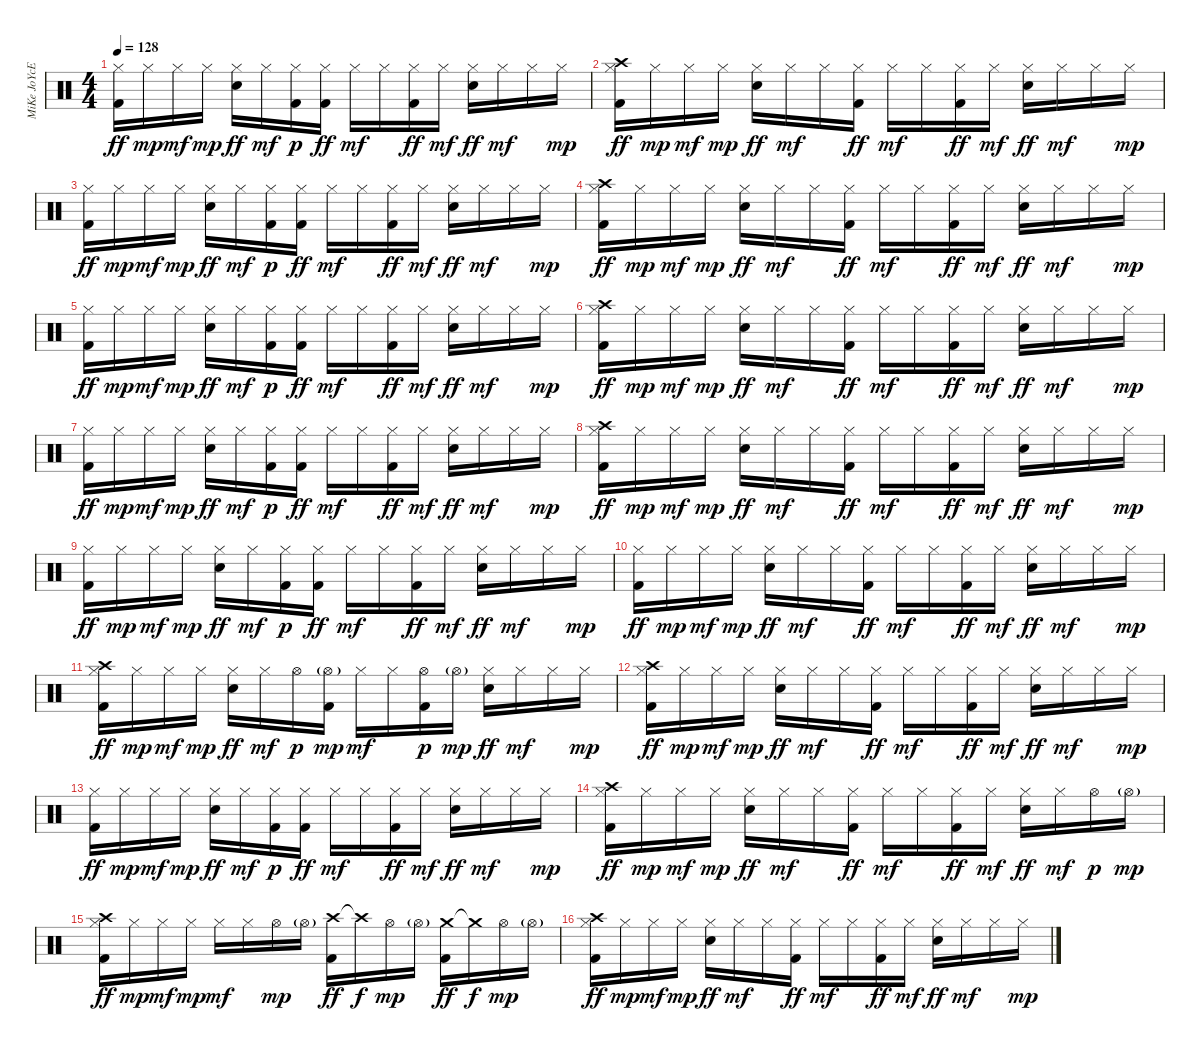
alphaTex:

\track ("MiKe JoYcE" "MiKe JoYcE") {instrument percussion}
\staff {score}
\articulation defaults
\ts (4 4)
\tempo 128
\clef neutral
\ks c
("Hi-Hat (closed)" "Kick (hit) 2").16{dy ff} "Hi-Hat (closed)".16{dy mp} "Hi-Hat (closed)".16{dy mf} "Hi-Hat (closed)".16{dy mp} ("Hi-Hat (closed)" "Electric Snare (hit)").16{dy ff} "Hi-Hat (closed)".16{dy mf} ("Hi-Hat (closed)" "Kick (hit) 2").16{dy p} ("Hi-Hat (closed)" "Kick (hit) 2").16{dy ff} "Hi-Hat (closed)".16{dy mf} "Hi-Hat (closed)".16 ("Hi-Hat (closed)" "Kick (hit) 2").16{dy ff} "Hi-Hat (closed)".16{dy mf} ("Hi-Hat (closed)" "Electric Snare (hit)").16{dy ff} "Hi-Hat (closed)".16{dy mf} "Hi-Hat (closed)".16 "Hi-Hat (closed)".16{dy mp} |
("Hi-Hat (closed)" "Crash high (hit)" "Kick (hit) 2").16{dy ff} "Hi-Hat (closed)".16{dy mp} "Hi-Hat (closed)".16{dy mf} "Hi-Hat (closed)".16{dy mp} ("Hi-Hat (closed)" "Electric Snare (hit)").16{dy ff} "Hi-Hat (closed)".16{dy mf} "Hi-Hat (closed)".16 ("Hi-Hat (closed)" "Kick (hit) 2").16{dy ff} "Hi-Hat (closed)".16{dy mf} "Hi-Hat (closed)".16 ("Hi-Hat (closed)" "Kick (hit) 2").16{dy ff} "Hi-Hat (closed)".16{dy mf} ("Hi-Hat (closed)" "Electric Snare (hit)").16{dy ff} "Hi-Hat (closed)".16{dy mf} "Hi-Hat (closed)".16 "Hi-Hat (closed)".16{dy mp} |
("Hi-Hat (closed)" "Kick (hit) 2").16{dy ff} "Hi-Hat (closed)".16{dy mp} "Hi-Hat (closed)".16{dy mf} "Hi-Hat (closed)".16{dy mp} ("Hi-Hat (closed)" "Electric Snare (hit)").16{dy ff} "Hi-Hat (closed)".16{dy mf} ("Hi-Hat (closed)" "Kick (hit) 2").16{dy p} ("Hi-Hat (closed)" "Kick (hit) 2").16{dy ff} "Hi-Hat (closed)".16{dy mf} "Hi-Hat (closed)".16 ("Hi-Hat (closed)" "Kick (hit) 2").16{dy ff} "Hi-Hat (closed)".16{dy mf} ("Hi-Hat (closed)" "Electric Snare (hit)").16{dy ff} "Hi-Hat (closed)".16{dy mf} "Hi-Hat (closed)".16 "Hi-Hat (closed)".16{dy mp} |
("Hi-Hat (closed)" "Crash high (hit)" "Kick (hit) 2").16{dy ff} "Hi-Hat (closed)".16{dy mp} "Hi-Hat (closed)".16{dy mf} "Hi-Hat (closed)".16{dy mp} ("Hi-Hat (closed)" "Electric Snare (hit)").16{dy ff} "Hi-Hat (closed)".16{dy mf} "Hi-Hat (closed)".16 ("Hi-Hat (closed)" "Kick (hit) 2").16{dy ff} "Hi-Hat (closed)".16{dy mf} "Hi-Hat (closed)".16 ("Hi-Hat (closed)" "Kick (hit) 2").16{dy ff} "Hi-Hat (closed)".16{dy mf} ("Hi-Hat (closed)" "Electric Snare (hit)").16{dy ff} "Hi-Hat (closed)".16{dy mf} "Hi-Hat (closed)".16 "Hi-Hat (closed)".16{dy mp} |
("Hi-Hat (closed)" "Kick (hit) 2").16{dy ff} "Hi-Hat (closed)".16{dy mp} "Hi-Hat (closed)".16{dy mf} "Hi-Hat (closed)".16{dy mp} ("Hi-Hat (closed)" "Electric Snare (hit)").16{dy ff} "Hi-Hat (closed)".16{dy mf} ("Hi-Hat (closed)" "Kick (hit) 2").16{dy p} ("Hi-Hat (closed)" "Kick (hit) 2").16{dy ff} "Hi-Hat (closed)".16{dy mf} "Hi-Hat (closed)".16 ("Hi-Hat (closed)" "Kick (hit) 2").16{dy ff} "Hi-Hat (closed)".16{dy mf} ("Hi-Hat (closed)" "Electric Snare (hit)").16{dy ff} "Hi-Hat (closed)".16{dy mf} "Hi-Hat (closed)".16 "Hi-Hat (closed)".16{dy mp} |
("Hi-Hat (closed)" "Crash high (hit)" "Kick (hit) 2").16{dy ff} "Hi-Hat (closed)".16{dy mp} "Hi-Hat (closed)".16{dy mf} "Hi-Hat (closed)".16{dy mp} ("Hi-Hat (closed)" "Electric Snare (hit)").16{dy ff} "Hi-Hat (closed)".16{dy mf} "Hi-Hat (closed)".16 ("Hi-Hat (closed)" "Kick (hit) 2").16{dy ff} "Hi-Hat (closed)".16{dy mf} "Hi-Hat (closed)".16 ("Hi-Hat (closed)" "Kick (hit) 2").16{dy ff} "Hi-Hat (closed)".16{dy mf} ("Hi-Hat (closed)" "Electric Snare (hit)").16{dy ff} "Hi-Hat (closed)".16{dy mf} "Hi-Hat (closed)".16 "Hi-Hat (closed)".16{dy mp} |
("Hi-Hat (closed)" "Kick (hit) 2").16{dy ff} "Hi-Hat (closed)".16{dy mp} "Hi-Hat (closed)".16{dy mf} "Hi-Hat (closed)".16{dy mp} ("Hi-Hat (closed)" "Electric Snare (hit)").16{dy ff} "Hi-Hat (closed)".16{dy mf} ("Hi-Hat (closed)" "Kick (hit) 2").16{dy p} ("Hi-Hat (closed)" "Kick (hit) 2").16{dy ff} "Hi-Hat (closed)".16{dy mf} "Hi-Hat (closed)".16 ("Hi-Hat (closed)" "Kick (hit) 2").16{dy ff} "Hi-Hat (closed)".16{dy mf} ("Hi-Hat (closed)" "Electric Snare (hit)").16{dy ff} "Hi-Hat (closed)".16{dy mf} "Hi-Hat (closed)".16 "Hi-Hat (closed)".16{dy mp} |
("Hi-Hat (closed)" "Crash high (hit)" "Kick (hit) 2").16{dy ff} "Hi-Hat (closed)".16{dy mp} "Hi-Hat (closed)".16{dy mf} "Hi-Hat (closed)".16{dy mp} ("Hi-Hat (closed)" "Electric Snare (hit)").16{dy ff} "Hi-Hat (closed)".16{dy mf} "Hi-Hat (closed)".16 ("Hi-Hat (closed)" "Kick (hit) 2").16{dy ff} "Hi-Hat (closed)".16{dy mf} "Hi-Hat (closed)".16 ("Hi-Hat (closed)" "Kick (hit) 2").16{dy ff} "Hi-Hat (closed)".16{dy mf} ("Hi-Hat (closed)" "Electric Snare (hit)").16{dy ff} "Hi-Hat (closed)".16{dy mf} "Hi-Hat (closed)".16 "Hi-Hat (closed)".16{dy mp} |
("Hi-Hat (closed)" "Kick (hit) 2").16{dy ff} "Hi-Hat (closed)".16{dy mp} "Hi-Hat (closed)".16{dy mf} "Hi-Hat (closed)".16{dy mp} ("Hi-Hat (closed)" "Electric Snare (hit)").16{dy ff} "Hi-Hat (closed)".16{dy mf} ("Hi-Hat (closed)" "Kick (hit) 2").16{dy p} ("Hi-Hat (closed)" "Kick (hit) 2").16{dy ff} "Hi-Hat (closed)".16{dy mf} "Hi-Hat (closed)".16 ("Hi-Hat (closed)" "Kick (hit) 2").16{dy ff} "Hi-Hat (closed)".16{dy mf} ("Hi-Hat (closed)" "Electric Snare (hit)").16{dy ff} "Hi-Hat (closed)".16{dy mf} "Hi-Hat (closed)".16 "Hi-Hat (closed)".16{dy mp} |
("Hi-Hat (closed)" "Kick (hit) 2").16{dy ff} "Hi-Hat (closed)".16{dy mp} "Hi-Hat (closed)".16{dy mf} "Hi-Hat (closed)".16{dy mp} ("Hi-Hat (closed)" "Electric Snare (hit)").16{dy ff} "Hi-Hat (closed)".16{dy mf} "Hi-Hat (closed)".16 ("Hi-Hat (closed)" "Kick (hit) 2").16{dy ff} "Hi-Hat (closed)".16{dy mf} "Hi-Hat (closed)".16 ("Hi-Hat (closed)" "Kick (hit) 2").16{dy ff} "Hi-Hat (closed)".16{dy mf} ("Hi-Hat (closed)" "Electric Snare (hit)").16{dy ff} "Hi-Hat (closed)".16{dy mf} "Hi-Hat (closed)".16 "Hi-Hat (closed)".16{dy mp} |
("Hi-Hat (closed)" "Crash high (hit)" "Kick (hit) 2").16{dy ff} "Hi-Hat (closed)".16{dy mp} "Hi-Hat (closed)".16{dy mf} "Hi-Hat (closed)".16{dy mp} ("Hi-Hat (closed)" "Electric Snare (hit)").16{dy ff} "Hi-Hat (closed)".16{dy mf} "Hi-Hat (open)".16{dy p} ("Hi-Hat (open)"{g} "Kick (hit) 2").16{dy mp volume 11} "Hi-Hat (closed)".16{dy mf volume 12} "Hi-Hat (closed)".16 ("Hi-Hat (open)" "Kick (hit) 2").16{dy p} "Hi-Hat (open)"{g}.16{dy mp volume 11} ("Hi-Hat (closed)" "Electric Snare (hit)").16{dy ff volume 12} "Hi-Hat (closed)".16{dy mf} "Hi-Hat (closed)".16 "Hi-Hat (closed)".16{dy mp} |
("Hi-Hat (closed)" "Crash high (hit)" "Kick (hit) 2").16{dy ff} "Hi-Hat (closed)".16{dy mp} "Hi-Hat (closed)".16{dy mf} "Hi-Hat (closed)".16{dy mp} ("Hi-Hat (closed)" "Electric Snare (hit)").16{dy ff} "Hi-Hat (closed)".16{dy mf} "Hi-Hat (closed)".16 ("Hi-Hat (closed)" "Kick (hit) 2").16{dy ff} "Hi-Hat (closed)".16{dy mf} "Hi-Hat (closed)".16 ("Hi-Hat (closed)" "Kick (hit) 2").16{dy ff} "Hi-Hat (closed)".16{dy mf} ("Hi-Hat (closed)" "Electric Snare (hit)").16{dy ff} "Hi-Hat (closed)".16{dy mf} "Hi-Hat (closed)".16 "Hi-Hat (closed)".16{dy mp} |
("Hi-Hat (closed)" "Kick (hit) 2").16{dy ff} "Hi-Hat (closed)".16{dy mp} "Hi-Hat (closed)".16{dy mf} "Hi-Hat (closed)".16{dy mp} ("Hi-Hat (closed)" "Electric Snare (hit)").16{dy ff} "Hi-Hat (closed)".16{dy mf} ("Hi-Hat (closed)" "Kick (hit) 2").16{dy p} ("Hi-Hat (closed)" "Kick (hit) 2").16{dy ff} "Hi-Hat (closed)".16{dy mf} "Hi-Hat (closed)".16 ("Hi-Hat (closed)" "Kick (hit) 2").16{dy ff} "Hi-Hat (closed)".16{dy mf} ("Hi-Hat (closed)" "Electric Snare (hit)").16{dy ff} "Hi-Hat (closed)".16{dy mf} "Hi-Hat (closed)".16 "Hi-Hat (closed)".16{dy mp} |
("Hi-Hat (closed)" "Crash high (hit)" "Kick (hit) 2").16{dy ff} "Hi-Hat (closed)".16{dy mp} "Hi-Hat (closed)".16{dy mf} "Hi-Hat (closed)".16{dy mp} ("Hi-Hat (closed)" "Electric Snare (hit)").16{dy ff} "Hi-Hat (closed)".16{dy mf} "Hi-Hat (closed)".16 ("Hi-Hat (closed)" "Kick (hit) 2").16{dy ff} "Hi-Hat (closed)".16{dy mf} "Hi-Hat (closed)".16 ("Hi-Hat (closed)" "Kick (hit) 2").16{dy ff} "Hi-Hat (closed)".16{dy mf} ("Hi-Hat (closed)" "Electric Snare (hit)").16{dy ff} "Hi-Hat (closed)".16{dy mf} "Hi-Hat (open)".16{dy p} "Hi-Hat (open)"{g}.16{dy mp} |
("Hi-Hat (closed)" "Crash high (hit)" "Kick (hit) 2").16{dy ff} "Hi-Hat (closed)".16{dy mp} "Hi-Hat (closed)".16{dy mf} "Hi-Hat (closed)".16{dy mp} "Hi-Hat (closed)".16{dy mf} "Hi-Hat (closed)".16 "Hi-Hat (open)".16{dy mp} "Hi-Hat (open)"{g}.16{volume 11} ("Crash high (hit)" "Kick (hit) 2").16{dy ff volume 12} "Crash high (hit)"{t}.16{dy f} "Hi-Hat (open)".16{dy mp} "Hi-Hat (open)"{g}.16{volume 11} ("Crash medium (hit)" "Kick (hit) 2").16{dy ff volume 12} "Crash medium (hit)"{t}.16{dy f} "Hi-Hat (open)".16{dy mp} "Hi-Hat (open)"{g}.16 |
("Hi-Hat (closed)" "Crash high (hit)" "Kick (hit) 2").16{dy ff} "Hi-Hat (closed)".16{dy mp} "Hi-Hat (closed)".16{dy mf} "Hi-Hat (closed)".16{dy mp} ("Hi-Hat (closed)" "Electric Snare (hit)").16{dy ff} "Hi-Hat (closed)".16{dy mf} "Hi-Hat (closed)".16 ("Hi-Hat (closed)" "Kick (hit) 2").16{dy ff} "Hi-Hat (closed)".16{dy mf} "Hi-Hat (closed)".16 ("Hi-Hat (closed)" "Kick (hit) 2").16{dy ff} "Hi-Hat (closed)".16{dy mf} ("Hi-Hat (closed)" "Electric Snare (hit)").16{dy ff} "Hi-Hat (closed)".16{dy mf} "Hi-Hat (closed)".16 "Hi-Hat (closed)".16{dy mp}
